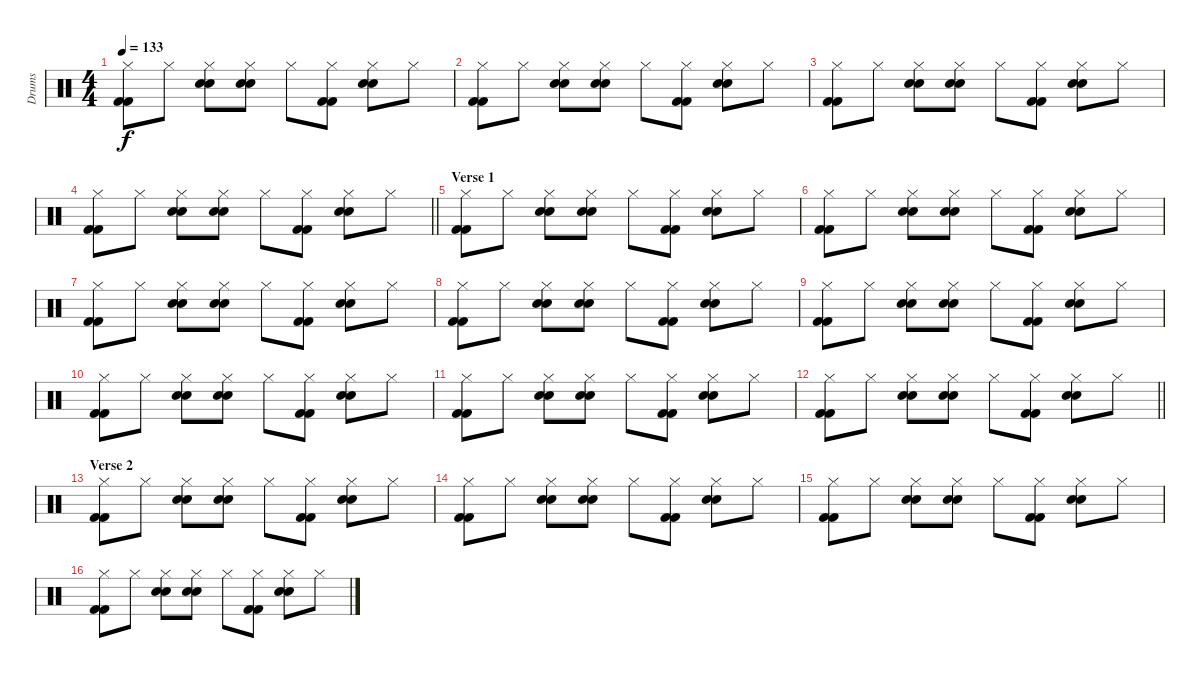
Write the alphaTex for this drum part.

\track ("Drums" "Drums") {instrument percussion}
\staff {score}
\articulation defaults
\ts (4 4)
\tempo 133
\clef neutral
\ks c
("Kick (hit) 2" "Kick (hit) 2" "Hi-Hat (closed)").8{dy f} "Hi-Hat (closed)".8 ("Snare (hit) 2" "Hi-Hat (closed)" "Electric Snare (hit)").8 ("Snare (hit) 2" "Hi-Hat (closed)" "Electric Snare (hit)").8 "Hi-Hat (closed)".8 ("Kick (hit) 2" "Kick (hit) 2" "Hi-Hat (closed)").8 ("Snare (hit) 2" "Hi-Hat (closed)" "Electric Snare (hit)").8 "Hi-Hat (closed)".8 |
("Kick (hit) 2" "Kick (hit) 2" "Hi-Hat (closed)").8 "Hi-Hat (closed)".8 ("Snare (hit) 2" "Hi-Hat (closed)" "Electric Snare (hit)").8 ("Snare (hit) 2" "Hi-Hat (closed)" "Electric Snare (hit)").8 "Hi-Hat (closed)".8 ("Kick (hit) 2" "Kick (hit) 2" "Hi-Hat (closed)").8 ("Snare (hit) 2" "Hi-Hat (closed)" "Electric Snare (hit)").8 "Hi-Hat (closed)".8 |
("Kick (hit) 2" "Kick (hit) 2" "Hi-Hat (closed)").8 "Hi-Hat (closed)".8 ("Snare (hit) 2" "Hi-Hat (closed)" "Electric Snare (hit)").8 ("Snare (hit) 2" "Hi-Hat (closed)" "Electric Snare (hit)").8 "Hi-Hat (closed)".8 ("Kick (hit) 2" "Kick (hit) 2" "Hi-Hat (closed)").8 ("Snare (hit) 2" "Hi-Hat (closed)" "Electric Snare (hit)").8 "Hi-Hat (closed)".8 |
\barLineRight lightlight
("Kick (hit) 2" "Kick (hit) 2" "Hi-Hat (closed)").8 "Hi-Hat (closed)".8 ("Snare (hit) 2" "Hi-Hat (closed)" "Electric Snare (hit)").8 ("Snare (hit) 2" "Hi-Hat (closed)" "Electric Snare (hit)").8 "Hi-Hat (closed)".8 ("Kick (hit) 2" "Kick (hit) 2" "Hi-Hat (closed)").8 ("Snare (hit) 2" "Hi-Hat (closed)" "Electric Snare (hit)").8 "Hi-Hat (closed)".8 |
\section ("" "Verse 1")
("Kick (hit) 2" "Kick (hit) 2" "Hi-Hat (closed)").8 "Hi-Hat (closed)".8 ("Snare (hit) 2" "Hi-Hat (closed)" "Electric Snare (hit)").8 ("Snare (hit) 2" "Hi-Hat (closed)" "Electric Snare (hit)").8 "Hi-Hat (closed)".8 ("Kick (hit) 2" "Kick (hit) 2" "Hi-Hat (closed)").8 ("Snare (hit) 2" "Hi-Hat (closed)" "Electric Snare (hit)").8 "Hi-Hat (closed)".8 |
("Kick (hit) 2" "Kick (hit) 2" "Hi-Hat (closed)").8 "Hi-Hat (closed)".8 ("Snare (hit) 2" "Hi-Hat (closed)" "Electric Snare (hit)").8 ("Snare (hit) 2" "Hi-Hat (closed)" "Electric Snare (hit)").8 "Hi-Hat (closed)".8 ("Kick (hit) 2" "Kick (hit) 2" "Hi-Hat (closed)").8 ("Snare (hit) 2" "Hi-Hat (closed)" "Electric Snare (hit)").8 "Hi-Hat (closed)".8 |
("Kick (hit) 2" "Kick (hit) 2" "Hi-Hat (closed)").8 "Hi-Hat (closed)".8 ("Snare (hit) 2" "Hi-Hat (closed)" "Electric Snare (hit)").8 ("Snare (hit) 2" "Hi-Hat (closed)" "Electric Snare (hit)").8 "Hi-Hat (closed)".8 ("Kick (hit) 2" "Kick (hit) 2" "Hi-Hat (closed)").8 ("Snare (hit) 2" "Hi-Hat (closed)" "Electric Snare (hit)").8 "Hi-Hat (closed)".8 |
("Kick (hit) 2" "Kick (hit) 2" "Hi-Hat (closed)").8 "Hi-Hat (closed)".8 ("Snare (hit) 2" "Hi-Hat (closed)" "Electric Snare (hit)").8 ("Snare (hit) 2" "Hi-Hat (closed)" "Electric Snare (hit)").8 "Hi-Hat (closed)".8 ("Kick (hit) 2" "Kick (hit) 2" "Hi-Hat (closed)").8 ("Snare (hit) 2" "Hi-Hat (closed)" "Electric Snare (hit)").8 "Hi-Hat (closed)".8 |
("Kick (hit) 2" "Kick (hit) 2" "Hi-Hat (closed)").8 "Hi-Hat (closed)".8 ("Snare (hit) 2" "Hi-Hat (closed)" "Electric Snare (hit)").8 ("Snare (hit) 2" "Hi-Hat (closed)" "Electric Snare (hit)").8 "Hi-Hat (closed)".8 ("Kick (hit) 2" "Kick (hit) 2" "Hi-Hat (closed)").8 ("Snare (hit) 2" "Hi-Hat (closed)" "Electric Snare (hit)").8 "Hi-Hat (closed)".8 |
("Kick (hit) 2" "Kick (hit) 2" "Hi-Hat (closed)").8 "Hi-Hat (closed)".8 ("Snare (hit) 2" "Hi-Hat (closed)" "Electric Snare (hit)").8 ("Snare (hit) 2" "Hi-Hat (closed)" "Electric Snare (hit)").8 "Hi-Hat (closed)".8 ("Kick (hit) 2" "Kick (hit) 2" "Hi-Hat (closed)").8 ("Snare (hit) 2" "Hi-Hat (closed)" "Electric Snare (hit)").8 "Hi-Hat (closed)".8 |
("Kick (hit) 2" "Kick (hit) 2" "Hi-Hat (closed)").8 "Hi-Hat (closed)".8 ("Snare (hit) 2" "Hi-Hat (closed)" "Electric Snare (hit)").8 ("Snare (hit) 2" "Hi-Hat (closed)" "Electric Snare (hit)").8 "Hi-Hat (closed)".8 ("Kick (hit) 2" "Kick (hit) 2" "Hi-Hat (closed)").8 ("Snare (hit) 2" "Hi-Hat (closed)" "Electric Snare (hit)").8 "Hi-Hat (closed)".8 |
\barLineRight lightlight
("Kick (hit) 2" "Kick (hit) 2" "Hi-Hat (closed)").8 "Hi-Hat (closed)".8 ("Snare (hit) 2" "Hi-Hat (closed)" "Electric Snare (hit)").8 ("Snare (hit) 2" "Hi-Hat (closed)" "Electric Snare (hit)").8 "Hi-Hat (closed)".8 ("Kick (hit) 2" "Kick (hit) 2" "Hi-Hat (closed)").8 ("Snare (hit) 2" "Hi-Hat (closed)" "Electric Snare (hit)").8 "Hi-Hat (closed)".8 |
\section ("" "Verse 2")
("Kick (hit) 2" "Kick (hit) 2" "Hi-Hat (closed)").8 "Hi-Hat (closed)".8 ("Snare (hit) 2" "Hi-Hat (closed)" "Electric Snare (hit)").8 ("Snare (hit) 2" "Hi-Hat (closed)" "Electric Snare (hit)").8 "Hi-Hat (closed)".8 ("Kick (hit) 2" "Kick (hit) 2" "Hi-Hat (closed)").8 ("Snare (hit) 2" "Hi-Hat (closed)" "Electric Snare (hit)").8 "Hi-Hat (closed)".8 |
("Kick (hit) 2" "Kick (hit) 2" "Hi-Hat (closed)").8 "Hi-Hat (closed)".8 ("Snare (hit) 2" "Hi-Hat (closed)" "Electric Snare (hit)").8 ("Snare (hit) 2" "Hi-Hat (closed)" "Electric Snare (hit)").8 "Hi-Hat (closed)".8 ("Kick (hit) 2" "Kick (hit) 2" "Hi-Hat (closed)").8 ("Snare (hit) 2" "Hi-Hat (closed)" "Electric Snare (hit)").8 "Hi-Hat (closed)".8 |
("Kick (hit) 2" "Kick (hit) 2" "Hi-Hat (closed)").8 "Hi-Hat (closed)".8 ("Snare (hit) 2" "Hi-Hat (closed)" "Electric Snare (hit)").8 ("Snare (hit) 2" "Hi-Hat (closed)" "Electric Snare (hit)").8 "Hi-Hat (closed)".8 ("Kick (hit) 2" "Kick (hit) 2" "Hi-Hat (closed)").8 ("Snare (hit) 2" "Hi-Hat (closed)" "Electric Snare (hit)").8 "Hi-Hat (closed)".8 |
("Kick (hit) 2" "Kick (hit) 2" "Hi-Hat (closed)").8 "Hi-Hat (closed)".8 ("Snare (hit) 2" "Hi-Hat (closed)" "Electric Snare (hit)").8 ("Snare (hit) 2" "Hi-Hat (closed)" "Electric Snare (hit)").8 "Hi-Hat (closed)".8 ("Kick (hit) 2" "Kick (hit) 2" "Hi-Hat (closed)").8 ("Snare (hit) 2" "Hi-Hat (closed)" "Electric Snare (hit)").8 "Hi-Hat (closed)".8
